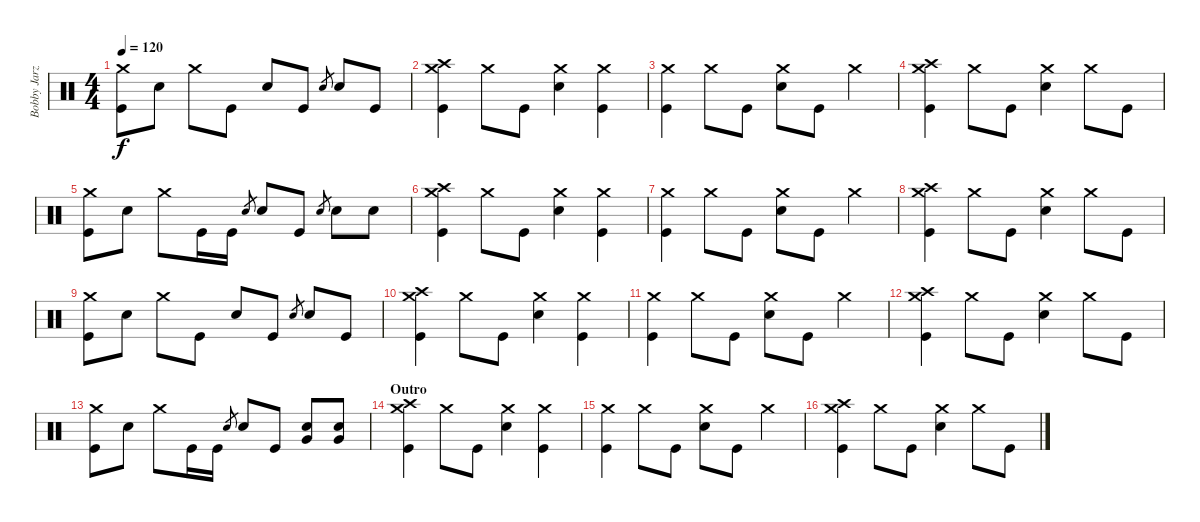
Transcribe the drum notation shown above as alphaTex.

\track ("Bobby Jarzombek" "Bobby Jarz") {instrument percussion}
\staff {score}
\articulation defaults
\ts (4 4)
\tempo 120
\clef neutral
\ks c
("Crash medium (hit)" "Kick (hit)").8{dy f} "Electric Snare (hit)".8 "Crash medium (hit)".8 "Kick (hit)".8 "Electric Snare (hit)".8 "Kick (hit)".8 "Electric Snare (hit)".8{gr} "Electric Snare (hit)".8 "Kick (hit)".8 |
("Crash high (hit)" "Crash medium (hit)" "Kick (hit)").4 "Crash medium (hit)".8 "Kick (hit)".8 ("Crash medium (hit)" "Electric Snare (hit)").4 ("Crash medium (hit)" "Kick (hit)").4 |
("Crash medium (hit)" "Kick (hit)").4 "Crash medium (hit)".8 "Kick (hit)".8 ("Crash medium (hit)" "Electric Snare (hit)").8 "Kick (hit)".8 "Crash medium (hit)".4 |
("Crash high (hit)" "Crash medium (hit)" "Kick (hit)").4 "Crash medium (hit)".8 "Kick (hit)".8 ("Crash medium (hit)" "Electric Snare (hit)").4 "Crash medium (hit)".8 "Kick (hit)".8 |
("Crash medium (hit)" "Kick (hit)").8 "Electric Snare (hit)".8 "Crash medium (hit)".8 "Kick (hit)".16 "Kick (hit)".16 "Electric Snare (hit)".8{gr} "Electric Snare (hit)".8 "Kick (hit)".8 "Electric Snare (hit)".8{gr} "Electric Snare (hit)".8 "Electric Snare (hit)".8 |
("Crash high (hit)" "Crash medium (hit)" "Kick (hit)").4 "Crash medium (hit)".8 "Kick (hit)".8 ("Crash medium (hit)" "Electric Snare (hit)").4 ("Crash medium (hit)" "Kick (hit)").4 |
("Crash medium (hit)" "Kick (hit)").4 "Crash medium (hit)".8 "Kick (hit)".8 ("Crash medium (hit)" "Electric Snare (hit)").8 "Kick (hit)".8 "Crash medium (hit)".4 |
("Crash high (hit)" "Crash medium (hit)" "Kick (hit)").4 "Crash medium (hit)".8 "Kick (hit)".8 ("Crash medium (hit)" "Electric Snare (hit)").4 "Crash medium (hit)".8 "Kick (hit)".8 |
("Crash medium (hit)" "Kick (hit)").8 "Electric Snare (hit)".8 "Crash medium (hit)".8 "Kick (hit)".8 "Electric Snare (hit)".8 "Kick (hit)".8 "Electric Snare (hit)".8{gr} "Electric Snare (hit)".8 "Kick (hit)".8 |
("Crash high (hit)" "Crash medium (hit)" "Kick (hit)").4 "Crash medium (hit)".8 "Kick (hit)".8 ("Crash medium (hit)" "Electric Snare (hit)").4 ("Crash medium (hit)" "Kick (hit)").4 |
("Crash medium (hit)" "Kick (hit)").4 "Crash medium (hit)".8 "Kick (hit)".8 ("Crash medium (hit)" "Electric Snare (hit)").8 "Kick (hit)".8 "Crash medium (hit)".4 |
("Crash high (hit)" "Crash medium (hit)" "Kick (hit)").4 "Crash medium (hit)".8 "Kick (hit)".8 ("Crash medium (hit)" "Electric Snare (hit)").4 "Crash medium (hit)".8 "Kick (hit)".8 |
("Crash medium (hit)" "Kick (hit)").8 "Electric Snare (hit)".8 "Crash medium (hit)".8 "Kick (hit)".16 "Kick (hit)".16 "Electric Snare (hit)".8{gr} "Electric Snare (hit)".8 "Kick (hit)".8 ("Very Low Tom (hit)" "Electric Snare (hit)").8 ("Very Low Tom (hit)" "Electric Snare (hit)").8 |
\section ("" "Outro")
("Crash high (hit)" "Crash medium (hit)" "Kick (hit)").4 "Crash medium (hit)".8 "Kick (hit)".8 ("Crash medium (hit)" "Electric Snare (hit)").4 ("Crash medium (hit)" "Kick (hit)").4 |
("Crash medium (hit)" "Kick (hit)").4 "Crash medium (hit)".8 "Kick (hit)".8 ("Crash medium (hit)" "Electric Snare (hit)").8 "Kick (hit)".8 "Crash medium (hit)".4 |
("Crash high (hit)" "Crash medium (hit)" "Kick (hit)").4 "Crash medium (hit)".8 "Kick (hit)".8 ("Crash medium (hit)" "Electric Snare (hit)").4 "Crash medium (hit)".8 "Kick (hit)".8
